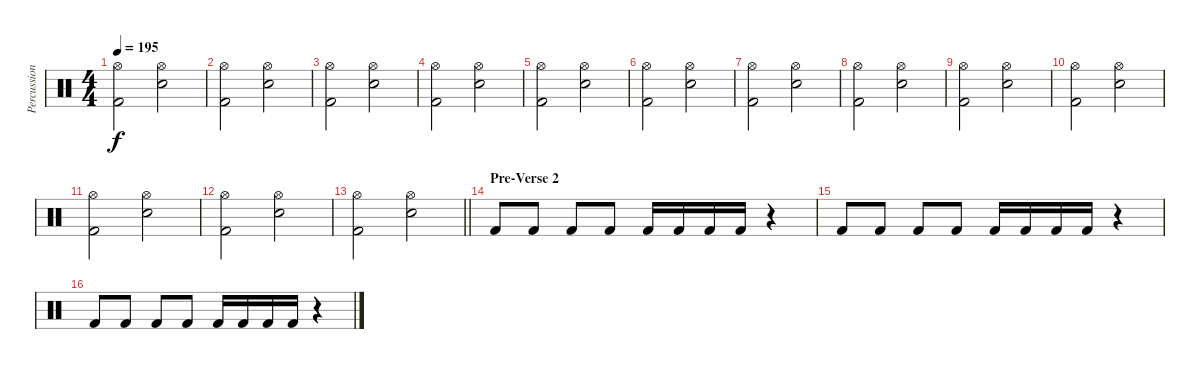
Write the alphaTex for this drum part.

\track ("Percussion" "Percussion") {instrument percussion}
\staff {score}
\articulation defaults
\ts (4 4)
\tempo 195
\clef neutral
\ks c
("Hi-Hat (open)" "Kick (hit) 2").2{dy f} ("Hi-Hat (open)" "Snare (hit) 2").2 |
("Hi-Hat (open)" "Kick (hit) 2").2 ("Hi-Hat (open)" "Snare (hit) 2").2 |
("Hi-Hat (open)" "Kick (hit) 2").2 ("Hi-Hat (open)" "Snare (hit) 2").2 |
("Hi-Hat (open)" "Kick (hit) 2").2 ("Hi-Hat (open)" "Snare (hit) 2").2 |
("Hi-Hat (open)" "Kick (hit) 2").2 ("Hi-Hat (open)" "Snare (hit) 2").2 |
("Hi-Hat (open)" "Kick (hit) 2").2 ("Hi-Hat (open)" "Snare (hit) 2").2 |
("Hi-Hat (open)" "Kick (hit) 2").2 ("Hi-Hat (open)" "Snare (hit) 2").2 |
("Hi-Hat (open)" "Kick (hit) 2").2 ("Hi-Hat (open)" "Snare (hit) 2").2 |
("Hi-Hat (open)" "Kick (hit) 2").2 ("Hi-Hat (open)" "Snare (hit) 2").2 |
("Hi-Hat (open)" "Kick (hit) 2").2 ("Hi-Hat (open)" "Snare (hit) 2").2 |
("Hi-Hat (open)" "Kick (hit) 2").2 ("Hi-Hat (open)" "Snare (hit) 2").2 |
("Hi-Hat (open)" "Kick (hit) 2").2 ("Hi-Hat (open)" "Snare (hit) 2").2 |
\barLineRight lightlight
("Hi-Hat (open)" "Kick (hit) 2").2 ("Hi-Hat (open)" "Snare (hit) 2").2 |
\section ("" "Pre-Verse 2")
"Kick (hit) 2".8 "Kick (hit) 2".8 "Kick (hit) 2".8 "Kick (hit) 2".8 "Kick (hit) 2".16 "Kick (hit) 2".16 "Kick (hit) 2".16 "Kick (hit) 2".16 r.4 |
"Kick (hit) 2".8 "Kick (hit) 2".8 "Kick (hit) 2".8 "Kick (hit) 2".8 "Kick (hit) 2".16 "Kick (hit) 2".16 "Kick (hit) 2".16 "Kick (hit) 2".16 r.4 |
"Kick (hit) 2".8 "Kick (hit) 2".8 "Kick (hit) 2".8 "Kick (hit) 2".8 "Kick (hit) 2".16 "Kick (hit) 2".16 "Kick (hit) 2".16 "Kick (hit) 2".16 r.4
